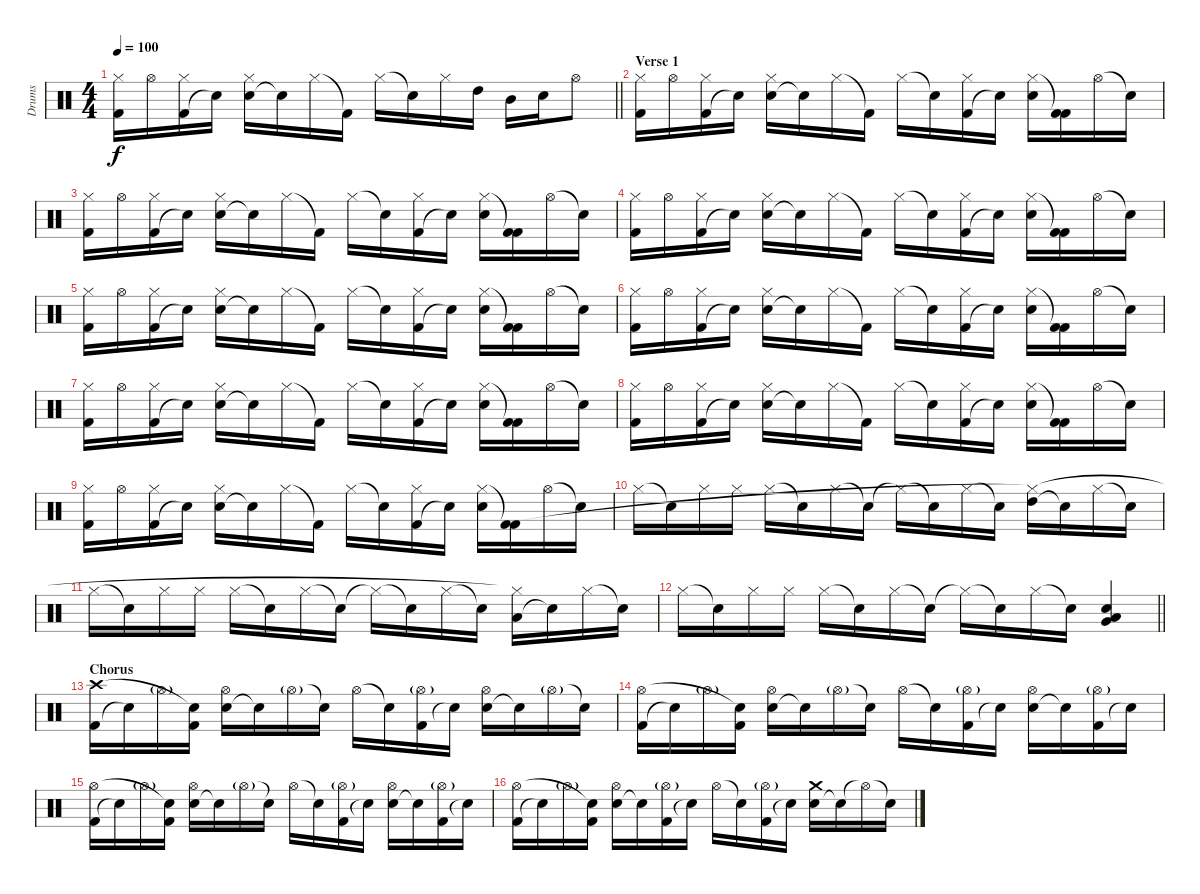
\track ("Drums" "Drums") {instrument percussion}
\staff {score}
\articulation defaults
\ts (4 4)
\tempo 100
\clef neutral
\barLineRight lightlight
\ks c
("Kick (hit) 2" "Hi-Hat (closed)").16{dy f} "Hi-Hat (open)".16 ("Kick (hit) 2" "Hi-Hat (closed)").16 "Snare (hit)"{t}.16 ("Snare (hit) 2" "Hi-Hat (closed)").16 "Snare (hit)"{t}.16 "Hi-Hat (closed)".16 "Kick (hit) 2"{t}.16 "Hi-Hat (closed)".16 "Snare (hit)"{t}.16 "Hi-Hat (closed)".16 "High Tom (hit)".16 "Mid Tom (hit)".16 "Snare (hit) 2".16 "Hi-Hat (open)".8 |
\section ("" "Verse 1")
("Kick (hit) 2" "Hi-Hat (closed)").16 "Hi-Hat (open)".16 ("Kick (hit) 2" "Hi-Hat (closed)").16 "Snare (hit)"{t}.16 ("Snare (hit) 2" "Hi-Hat (closed)").16 "Snare (hit)"{t}.16 "Hi-Hat (closed)".16 "Kick (hit) 2"{t}.16 "Hi-Hat (closed)".16 "Snare (hit)"{t}.16 ("Kick (hit) 2" "Hi-Hat (closed)").16 "Snare (hit)"{t}.16 ("Snare (hit) 2" "Hi-Hat (closed)").16 ("Kick (hit) 2" "Kick (hit) 2"{t}).16 "Hi-Hat (open)".16 "Snare (hit)"{t}.16 |
("Kick (hit) 2" "Hi-Hat (closed)").16 "Hi-Hat (open)".16 ("Kick (hit) 2" "Hi-Hat (closed)").16 "Snare (hit)"{t}.16 ("Snare (hit) 2" "Hi-Hat (closed)").16 "Snare (hit)"{t}.16 "Hi-Hat (closed)".16 "Kick (hit) 2"{t}.16 "Hi-Hat (closed)".16 "Snare (hit)"{t}.16 ("Kick (hit) 2" "Hi-Hat (closed)").16 "Snare (hit)"{t}.16 ("Snare (hit) 2" "Hi-Hat (closed)").16 ("Kick (hit) 2" "Kick (hit) 2"{t}).16 "Hi-Hat (open)".16 "Snare (hit)"{t}.16 |
("Kick (hit) 2" "Hi-Hat (closed)").16 "Hi-Hat (open)".16 ("Kick (hit) 2" "Hi-Hat (closed)").16 "Snare (hit)"{t}.16 ("Snare (hit) 2" "Hi-Hat (closed)").16 "Snare (hit)"{t}.16 "Hi-Hat (closed)".16 "Kick (hit) 2"{t}.16 "Hi-Hat (closed)".16 "Snare (hit)"{t}.16 ("Kick (hit) 2" "Hi-Hat (closed)").16 "Snare (hit)"{t}.16 ("Snare (hit) 2" "Hi-Hat (closed)").16 ("Kick (hit) 2" "Kick (hit) 2"{t}).16 "Hi-Hat (open)".16 "Snare (hit)"{t}.16 |
("Kick (hit) 2" "Hi-Hat (closed)").16 "Hi-Hat (open)".16 ("Kick (hit) 2" "Hi-Hat (closed)").16 "Snare (hit)"{t}.16 ("Snare (hit) 2" "Hi-Hat (closed)").16 "Snare (hit)"{t}.16 "Hi-Hat (closed)".16 "Kick (hit) 2"{t}.16 "Hi-Hat (closed)".16 "Snare (hit)"{t}.16 ("Kick (hit) 2" "Hi-Hat (closed)").16 "Snare (hit)"{t}.16 ("Snare (hit) 2" "Hi-Hat (closed)").16 ("Kick (hit) 2" "Kick (hit) 2"{t}).16 "Hi-Hat (open)".16 "Snare (hit)"{t}.16 |
("Kick (hit) 2" "Hi-Hat (closed)").16 "Hi-Hat (open)".16 ("Kick (hit) 2" "Hi-Hat (closed)").16 "Snare (hit)"{t}.16 ("Snare (hit) 2" "Hi-Hat (closed)").16 "Snare (hit)"{t}.16 "Hi-Hat (closed)".16 "Kick (hit) 2"{t}.16 "Hi-Hat (closed)".16 "Snare (hit)"{t}.16 ("Kick (hit) 2" "Hi-Hat (closed)").16 "Snare (hit)"{t}.16 ("Snare (hit) 2" "Hi-Hat (closed)").16 ("Kick (hit) 2" "Kick (hit) 2"{t}).16 "Hi-Hat (open)".16 "Snare (hit)"{t}.16 |
("Kick (hit) 2" "Hi-Hat (closed)").16 "Hi-Hat (open)".16 ("Kick (hit) 2" "Hi-Hat (closed)").16 "Snare (hit)"{t}.16 ("Snare (hit) 2" "Hi-Hat (closed)").16 "Snare (hit)"{t}.16 "Hi-Hat (closed)".16 "Kick (hit) 2"{t}.16 "Hi-Hat (closed)".16 "Snare (hit)"{t}.16 ("Kick (hit) 2" "Hi-Hat (closed)").16 "Snare (hit)"{t}.16 ("Snare (hit) 2" "Hi-Hat (closed)").16 ("Kick (hit) 2" "Kick (hit) 2"{t}).16 "Hi-Hat (open)".16 "Snare (hit)"{t}.16 |
("Kick (hit) 2" "Hi-Hat (closed)").16 "Hi-Hat (open)".16 ("Kick (hit) 2" "Hi-Hat (closed)").16 "Snare (hit)"{t}.16 ("Snare (hit) 2" "Hi-Hat (closed)").16 "Snare (hit)"{t}.16 "Hi-Hat (closed)".16 "Kick (hit) 2"{t}.16 "Hi-Hat (closed)".16 "Snare (hit)"{t}.16 ("Kick (hit) 2" "Hi-Hat (closed)").16 "Snare (hit)"{t}.16 ("Snare (hit) 2" "Hi-Hat (closed)").16 ("Kick (hit) 2" "Kick (hit) 2"{t}).16 "Hi-Hat (open)".16 "Snare (hit)"{t}.16 |
("Kick (hit) 2" "Hi-Hat (closed)").16 "Hi-Hat (open)".16 ("Kick (hit) 2" "Hi-Hat (closed)").16 "Snare (hit)"{t}.16 ("Snare (hit) 2" "Hi-Hat (closed)").16 "Snare (hit)"{t}.16 "Hi-Hat (closed)".16 "Kick (hit) 2"{t}.16 "Hi-Hat (closed)".16 "Snare (hit)"{t}.16 ("Kick (hit) 2" "Hi-Hat (closed)").16 "Snare (hit)"{t}.16 ("Snare (hit) 2" "Hi-Hat (closed)").16 ("Kick (hit) 2" "Kick (hit) 2"{t}).16 "Hi-Hat (open)".16 "Snare (hit)"{t}.16 |
"Hi-Hat (closed)".16 "Snare (hit)"{t}.16 "Hi-Hat (closed)".16 "Hi-Hat (closed)".16 "Hi-Hat (closed)".16 "Snare (hit)"{t}.16 "Hi-Hat (closed)".16 "Snare (hit)"{t}.16 "Hi-Hat (closed)"{t}.16 "Snare (hit)"{t}.16 "Hi-Hat (closed)".16 "Snare (hit)"{t}.16 ("High Tom (hit)" "Hi-Hat (closed)"{t}).16 "Snare (hit)"{t}.16 "Hi-Hat (closed)".16 "Snare (hit)"{t}.16 |
"Hi-Hat (closed)".16 "Snare (hit)"{t}.16 "Hi-Hat (closed)".16 "Hi-Hat (closed)".16 "Hi-Hat (closed)".16 "Snare (hit)"{t}.16 "Hi-Hat (closed)".16 "Snare (hit)"{t}.16 "Hi-Hat (closed)"{t}.16 "Snare (hit)"{t}.16 "Hi-Hat (closed)".16 "Snare (hit)"{t}.16 ("Low Tom (hit)" "Hi-Hat (closed)"{t}).16 "Snare (hit)"{t}.16 "Hi-Hat (closed)".16 "Snare (hit)"{t}.16 |
\barLineRight lightlight "Hi-Hat (closed)".16 "Snare (hit)"{t}.16 "Hi-Hat (closed)".16 "Hi-Hat (closed)".16 "Hi-Hat (closed)".16 "Snare (hit)"{t}.16 "Hi-Hat (closed)".16 "Snare (hit)"{t}.16 "Hi-Hat (closed)"{t}.16 "Snare (hit)"{t}.16 "Hi-Hat (closed)".16 "Snare (hit)"{t}.16
("Low Tom (hit)" "Very Low Tom (hit)" "Snare (hit) 2").4 |
\section ("" "Chorus ")
("Kick (hit) 2" "Crash high (hit)").16 "Snare (hit)"{t}.16 "Hi-Hat (open)"{g}.16 ("Kick (hit) 2" "Snare (hit)"{t}).16 ("Snare (hit) 2" "Hi-Hat (open)").16 "Snare (hit)"{t}.16 "Hi-Hat (open)"{g}.16 "Snare (hit)"{t}.16 "Hi-Hat (open)".16 "Snare (hit)"{t}.16 ("Kick (hit) 2" "Hi-Hat (open)"{g}).16 "Snare (hit)"{t}.16 ("Snare (hit) 2" "Hi-Hat (open)").16 "Snare (hit)"{t}.16 "Hi-Hat (open)"{g}.16 "Snare (hit)"{t}.16 |
("Kick (hit) 2" "Hi-Hat (open)").16 "Snare (hit)"{t}.16 "Hi-Hat (open)"{g}.16 ("Kick (hit) 2" "Snare (hit)"{t}).16 ("Snare (hit) 2" "Hi-Hat (open)").16 "Snare (hit)"{t}.16 "Hi-Hat (open)"{g}.16 "Snare (hit)"{t}.16 "Hi-Hat (open)".16 "Snare (hit)"{t}.16 ("Kick (hit) 2" "Hi-Hat (open)"{g}).16 "Snare (hit)"{t}.16 ("Snare (hit) 2" "Hi-Hat (open)").16 "Snare (hit)"{t}.16 ("Kick (hit) 2" "Hi-Hat (open)"{g}).16 "Snare (hit)"{t}.16 |
("Kick (hit) 2" "Hi-Hat (open)").16 "Snare (hit)"{t}.16 "Hi-Hat (open)"{g}.16 ("Kick (hit) 2" "Snare (hit)"{t}).16 ("Snare (hit) 2" "Hi-Hat (open)").16 "Snare (hit)"{t}.16 "Hi-Hat (open)"{g}.16 "Snare (hit)"{t}.16 "Hi-Hat (open)".16 "Snare (hit)"{t}.16 ("Kick (hit) 2" "Hi-Hat (open)"{g}).16 "Snare (hit)"{t}.16 ("Snare (hit) 2" "Hi-Hat (open)").16 "Snare (hit)"{t}.16 ("Kick (hit) 2" "Hi-Hat (open)"{g}).16 "Snare (hit)"{t}.16 |
("Kick (hit) 2" "Hi-Hat (open)").16 "Snare (hit)"{t}.16 "Hi-Hat (open)"{g}.16 ("Kick (hit) 2" "Snare (hit)"{t}).16 ("Snare (hit) 2" "Hi-Hat (open)").16 "Snare (hit)"{t}.16 ("Kick (hit) 2" "Hi-Hat (open)"{g}).16 "Snare (hit)"{t}.16 "Hi-Hat (open)".16 "Snare (hit)"{t}.16 ("Kick (hit) 2" "Hi-Hat (open)"{g}).16 "Snare (hit)"{t}.16 ("Snare (hit) 2" "Crash medium (hit)").16 "Snare (hit)"{t}.16 "Hi-Hat (open)"{t}.16 "Snare (hit)"{t}.16
